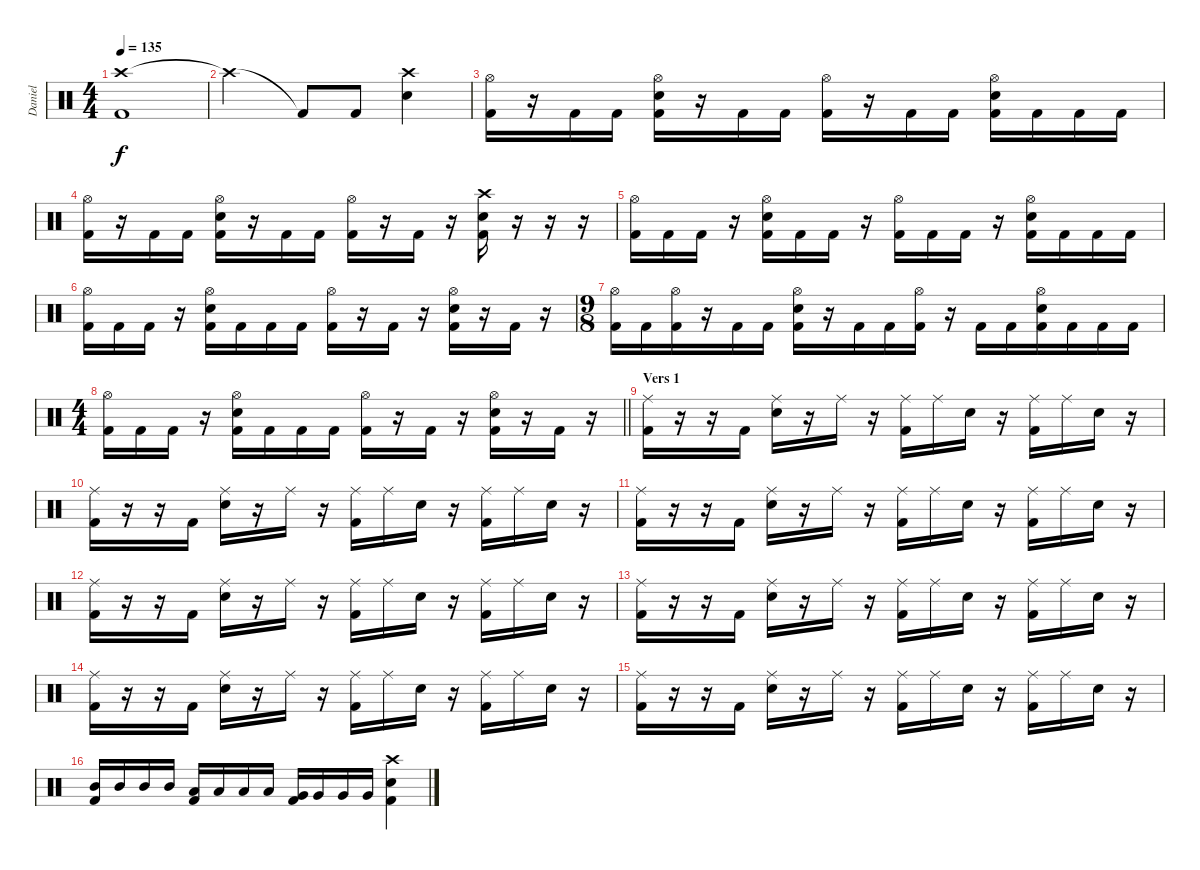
\track ("Daniel" "Daniel") {instrument percussion}
\staff {score}
\articulation defaults
\ts (4 4)
\tempo 135
\clef neutral
\ks c
("Crash high (hit)" "Kick (hit) 2").1{dy f} |
"Crash high (hit)"{t}.2 "Kick (hit) 2"{t}.8 "Kick (hit) 2".8 ("Electric Snare (hit)" "Crash high (hit)").4 |
("Hi-Hat (open)" "Kick (hit) 2").16 r.16 "Kick (hit) 2".16 "Kick (hit) 2".16 ("Hi-Hat (open)" "Electric Snare (hit)" "Kick (hit) 2").16 r.16 "Kick (hit) 2".16 "Kick (hit) 2".16 ("Hi-Hat (open)" "Kick (hit) 2").16 r.16 "Kick (hit) 2".16 "Kick (hit) 2".16 ("Hi-Hat (open)" "Electric Snare (hit)" "Kick (hit) 2").16 "Kick (hit) 2".16 "Kick (hit) 2".16 "Kick (hit) 2".16 |
("Hi-Hat (open)" "Kick (hit) 2").16 r.16 "Kick (hit) 2".16 "Kick (hit) 2".16 ("Hi-Hat (open)" "Electric Snare (hit)" "Kick (hit) 2").16 r.16 "Kick (hit) 2".16 "Kick (hit) 2".16 ("Hi-Hat (open)" "Kick (hit) 2").16 r.16 "Kick (hit) 2".16 r.16 ("Crash high (hit)" "Electric Snare (hit)" "Kick (hit) 2").16 r.16 r.16 r.16 |
("Hi-Hat (open)" "Kick (hit) 2").16 "Kick (hit) 2".16 "Kick (hit) 2".16 r.16 ("Hi-Hat (open)" "Electric Snare (hit)" "Kick (hit) 2").16 "Kick (hit) 2".16 "Kick (hit) 2".16 r.16 ("Hi-Hat (open)" "Kick (hit) 2").16 "Kick (hit) 2".16 "Kick (hit) 2".16 r.16 ("Hi-Hat (open)" "Electric Snare (hit)" "Kick (hit) 2").16 "Kick (hit) 2".16 "Kick (hit) 2".16 "Kick (hit) 2".16 |
("Hi-Hat (open)" "Kick (hit) 2").16 "Kick (hit) 2".16 "Kick (hit) 2".16 r.16 ("Hi-Hat (open)" "Electric Snare (hit)" "Kick (hit) 2").16 "Kick (hit) 2".16 "Kick (hit) 2".16 "Kick (hit) 2".16 ("Hi-Hat (open)" "Kick (hit) 2").16 r.16 "Kick (hit) 2".16 r.16 ("Hi-Hat (open)" "Electric Snare (hit)" "Kick (hit) 2").16 r.16 "Kick (hit) 2".16 r.16 |
\ts (9 8)
("Hi-Hat (open)" "Kick (hit) 2").16 "Kick (hit) 2".16 ("Hi-Hat (open)" "Kick (hit) 2").16 r.16 "Kick (hit) 2".16 "Kick (hit) 2".16 ("Hi-Hat (open)" "Electric Snare (hit)" "Kick (hit) 2").16 r.16 "Kick (hit) 2".16 "Kick (hit) 2".16 ("Hi-Hat (open)" "Kick (hit) 2").16 r.16 "Kick (hit) 2".16 "Kick (hit) 2".16 ("Hi-Hat (open)" "Electric Snare (hit)" "Kick (hit) 2").16 "Kick (hit) 2".16 "Kick (hit) 2".16 "Kick (hit) 2".16 |
\ts (4 4)
\barLineRight lightlight
("Hi-Hat (open)" "Kick (hit) 2").16 "Kick (hit) 2".16 "Kick (hit) 2".16 r.16 ("Hi-Hat (open)" "Electric Snare (hit)" "Kick (hit) 2").16 "Kick (hit) 2".16 "Kick (hit) 2".16 "Kick (hit) 2".16 ("Hi-Hat (open)" "Kick (hit) 2").16 r.16 "Kick (hit) 2".16 r.16 ("Hi-Hat (open)" "Electric Snare (hit)" "Kick (hit) 2").16 r.16 "Kick (hit) 2".16 r.16 |
\section ("" "Vers 1")
("Ride (middle)" "Kick (hit) 2").16 r.16 r.16 "Kick (hit) 2".16 ("Ride (middle)" "Electric Snare (hit)").16 r.16 "Ride (middle)".16 r.16 ("Ride (middle)" "Kick (hit) 2").16 "Ride (middle)".16 "Electric Snare (hit)".16 r.16 ("Ride (middle)" "Kick (hit) 2").16 "Ride (middle)".16 "Electric Snare (hit)".16 r.16 |
("Ride (middle)" "Kick (hit) 2").16 r.16 r.16 "Kick (hit) 2".16 ("Ride (middle)" "Electric Snare (hit)").16 r.16 "Ride (middle)".16 r.16 ("Ride (middle)" "Kick (hit) 2").16 "Ride (middle)".16 "Electric Snare (hit)".16 r.16 ("Ride (middle)" "Kick (hit) 2").16 "Ride (middle)".16 "Electric Snare (hit)".16 r.16 |
("Ride (middle)" "Kick (hit) 2").16 r.16 r.16 "Kick (hit) 2".16 ("Ride (middle)" "Electric Snare (hit)").16 r.16 "Ride (middle)".16 r.16 ("Ride (middle)" "Kick (hit) 2").16 "Ride (middle)".16 "Electric Snare (hit)".16 r.16 ("Ride (middle)" "Kick (hit) 2").16 "Ride (middle)".16 "Electric Snare (hit)".16 r.16 |
("Ride (middle)" "Kick (hit) 2").16 r.16 r.16 "Kick (hit) 2".16 ("Ride (middle)" "Electric Snare (hit)").16 r.16 "Ride (middle)".16 r.16 ("Ride (middle)" "Kick (hit) 2").16 "Ride (middle)".16 "Electric Snare (hit)".16 r.16 ("Ride (middle)" "Kick (hit) 2").16 "Ride (middle)".16 "Electric Snare (hit)".16 r.16 |
("Ride (middle)" "Kick (hit) 2").16 r.16 r.16 "Kick (hit) 2".16 ("Ride (middle)" "Electric Snare (hit)").16 r.16 "Ride (middle)".16 r.16 ("Ride (middle)" "Kick (hit) 2").16 "Ride (middle)".16 "Electric Snare (hit)".16 r.16 ("Ride (middle)" "Kick (hit) 2").16 "Ride (middle)".16 "Electric Snare (hit)".16 r.16 |
("Ride (middle)" "Kick (hit) 2").16 r.16 r.16 "Kick (hit) 2".16 ("Ride (middle)" "Electric Snare (hit)").16 r.16 "Ride (middle)".16 r.16 ("Ride (middle)" "Kick (hit) 2").16 "Ride (middle)".16 "Electric Snare (hit)".16 r.16 ("Ride (middle)" "Kick (hit) 2").16 "Ride (middle)".16 "Electric Snare (hit)".16 r.16 |
("Ride (middle)" "Kick (hit) 2").16 r.16 r.16 "Kick (hit) 2".16 ("Ride (middle)" "Electric Snare (hit)").16 r.16 "Ride (middle)".16 r.16 ("Ride (middle)" "Kick (hit) 2").16 "Ride (middle)".16 "Electric Snare (hit)".16 r.16 ("Ride (middle)" "Kick (hit) 2").16 "Ride (middle)".16 "Electric Snare (hit)".16 r.16 |
("Mid Tom (hit)" "Kick (hit) 2").16 "Mid Tom (hit)".16 "Mid Tom (hit)".16 "Mid Tom (hit)".16 ("Low Tom (hit)" "Kick (hit) 2").16 "Low Tom (hit)".16 "Low Tom (hit)".16 "Low Tom (hit)".16 ("Very Low Tom (hit)" "Kick (hit) 2").16 "Very Low Tom (hit)".16 "Very Low Tom (hit)".16 "Very Low Tom (hit)".16 ("Crash high (hit)" "Electric Snare (hit)" "Kick (hit) 2").4
